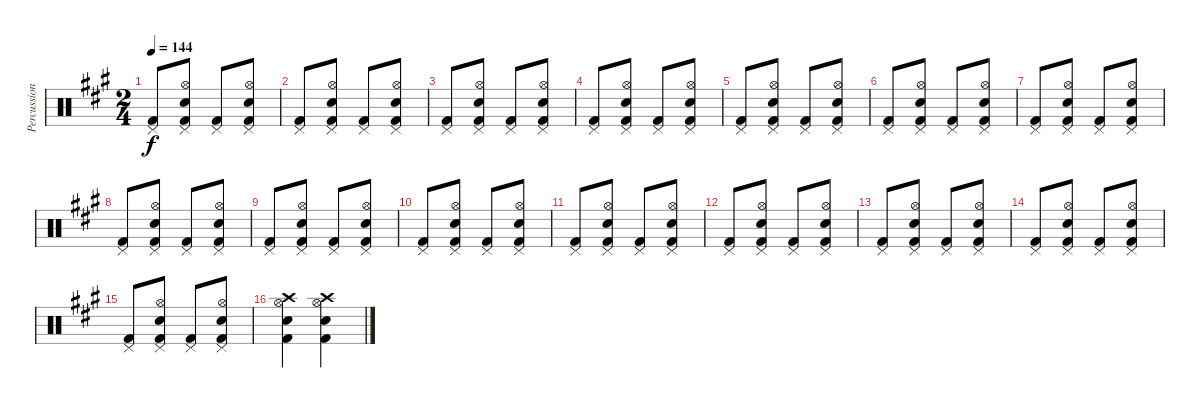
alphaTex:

\track ("Percussion" "Percussion") {instrument percussion}
\staff {score}
\articulation defaults
\ts (2 4)
\tempo 144
\clef neutral
\ks a
("Pedal Hi-Hat (hit)" "Kick (hit) 2").8{dy f} ("Pedal Hi-Hat (hit)" "Hi-Hat (open)" "Snare (hit) 2" "Kick (hit) 2").8 ("Pedal Hi-Hat (hit)" "Kick (hit) 2").8 ("Pedal Hi-Hat (hit)" "Hi-Hat (open)" "Snare (hit) 2" "Kick (hit) 2").8 |
("Pedal Hi-Hat (hit)" "Kick (hit) 2").8 ("Pedal Hi-Hat (hit)" "Hi-Hat (open)" "Snare (hit) 2" "Kick (hit) 2").8 ("Pedal Hi-Hat (hit)" "Kick (hit) 2").8 ("Pedal Hi-Hat (hit)" "Hi-Hat (open)" "Snare (hit) 2" "Kick (hit) 2").8 |
("Pedal Hi-Hat (hit)" "Kick (hit) 2").8 ("Pedal Hi-Hat (hit)" "Hi-Hat (open)" "Snare (hit) 2" "Kick (hit) 2").8 ("Pedal Hi-Hat (hit)" "Kick (hit) 2").8 ("Pedal Hi-Hat (hit)" "Hi-Hat (open)" "Snare (hit) 2" "Kick (hit) 2").8 |
("Pedal Hi-Hat (hit)" "Kick (hit) 2").8 ("Pedal Hi-Hat (hit)" "Hi-Hat (open)" "Snare (hit) 2" "Kick (hit) 2").8 ("Pedal Hi-Hat (hit)" "Kick (hit) 2").8 ("Pedal Hi-Hat (hit)" "Hi-Hat (open)" "Snare (hit) 2" "Kick (hit) 2").8 |
("Pedal Hi-Hat (hit)" "Kick (hit) 2").8 ("Pedal Hi-Hat (hit)" "Hi-Hat (open)" "Snare (hit) 2" "Kick (hit) 2").8 ("Pedal Hi-Hat (hit)" "Kick (hit) 2").8 ("Pedal Hi-Hat (hit)" "Hi-Hat (open)" "Snare (hit) 2" "Kick (hit) 2").8 |
("Pedal Hi-Hat (hit)" "Kick (hit) 2").8 ("Pedal Hi-Hat (hit)" "Hi-Hat (open)" "Snare (hit) 2" "Kick (hit) 2").8 ("Pedal Hi-Hat (hit)" "Kick (hit) 2").8 ("Pedal Hi-Hat (hit)" "Hi-Hat (open)" "Snare (hit) 2" "Kick (hit) 2").8 |
("Pedal Hi-Hat (hit)" "Kick (hit) 2").8 ("Pedal Hi-Hat (hit)" "Hi-Hat (open)" "Snare (hit) 2" "Kick (hit) 2").8 ("Pedal Hi-Hat (hit)" "Kick (hit) 2").8 ("Pedal Hi-Hat (hit)" "Hi-Hat (open)" "Snare (hit) 2" "Kick (hit) 2").8 |
("Pedal Hi-Hat (hit)" "Kick (hit) 2").8 ("Pedal Hi-Hat (hit)" "Hi-Hat (open)" "Snare (hit) 2" "Kick (hit) 2").8 ("Pedal Hi-Hat (hit)" "Kick (hit) 2").8 ("Pedal Hi-Hat (hit)" "Hi-Hat (open)" "Snare (hit) 2" "Kick (hit) 2").8 |
("Pedal Hi-Hat (hit)" "Kick (hit) 2").8 ("Pedal Hi-Hat (hit)" "Hi-Hat (open)" "Snare (hit) 2" "Kick (hit) 2").8 ("Pedal Hi-Hat (hit)" "Kick (hit) 2").8 ("Pedal Hi-Hat (hit)" "Hi-Hat (open)" "Snare (hit) 2" "Kick (hit) 2").8 |
("Pedal Hi-Hat (hit)" "Kick (hit) 2").8 ("Pedal Hi-Hat (hit)" "Hi-Hat (open)" "Snare (hit) 2" "Kick (hit) 2").8 ("Pedal Hi-Hat (hit)" "Kick (hit) 2").8 ("Pedal Hi-Hat (hit)" "Hi-Hat (open)" "Snare (hit) 2" "Kick (hit) 2").8 |
("Pedal Hi-Hat (hit)" "Kick (hit) 2").8 ("Pedal Hi-Hat (hit)" "Hi-Hat (open)" "Snare (hit) 2" "Kick (hit) 2").8 ("Pedal Hi-Hat (hit)" "Kick (hit) 2").8 ("Pedal Hi-Hat (hit)" "Hi-Hat (open)" "Snare (hit) 2" "Kick (hit) 2").8 |
("Pedal Hi-Hat (hit)" "Kick (hit) 2").8 ("Pedal Hi-Hat (hit)" "Hi-Hat (open)" "Snare (hit) 2" "Kick (hit) 2").8 ("Pedal Hi-Hat (hit)" "Kick (hit) 2").8 ("Pedal Hi-Hat (hit)" "Hi-Hat (open)" "Snare (hit) 2" "Kick (hit) 2").8 |
("Pedal Hi-Hat (hit)" "Kick (hit) 2").8 ("Pedal Hi-Hat (hit)" "Hi-Hat (open)" "Snare (hit) 2" "Kick (hit) 2").8 ("Pedal Hi-Hat (hit)" "Kick (hit) 2").8 ("Pedal Hi-Hat (hit)" "Hi-Hat (open)" "Snare (hit) 2" "Kick (hit) 2").8 |
("Pedal Hi-Hat (hit)" "Kick (hit) 2").8 ("Pedal Hi-Hat (hit)" "Hi-Hat (open)" "Snare (hit) 2" "Kick (hit) 2").8 ("Pedal Hi-Hat (hit)" "Kick (hit) 2").8 ("Pedal Hi-Hat (hit)" "Hi-Hat (open)" "Snare (hit) 2" "Kick (hit) 2").8 |
("Pedal Hi-Hat (hit)" "Kick (hit) 2").8 ("Pedal Hi-Hat (hit)" "Hi-Hat (open)" "Snare (hit) 2" "Kick (hit) 2").8 ("Pedal Hi-Hat (hit)" "Kick (hit) 2").8 ("Pedal Hi-Hat (hit)" "Hi-Hat (open)" "Snare (hit) 2" "Kick (hit) 2").8 |
("Crash high (hit)" "Hi-Hat (open)" "Snare (hit) 2" "Kick (hit) 2").4 ("Crash high (hit)" "Hi-Hat (open)" "Snare (hit) 2" "Kick (hit) 2").4
